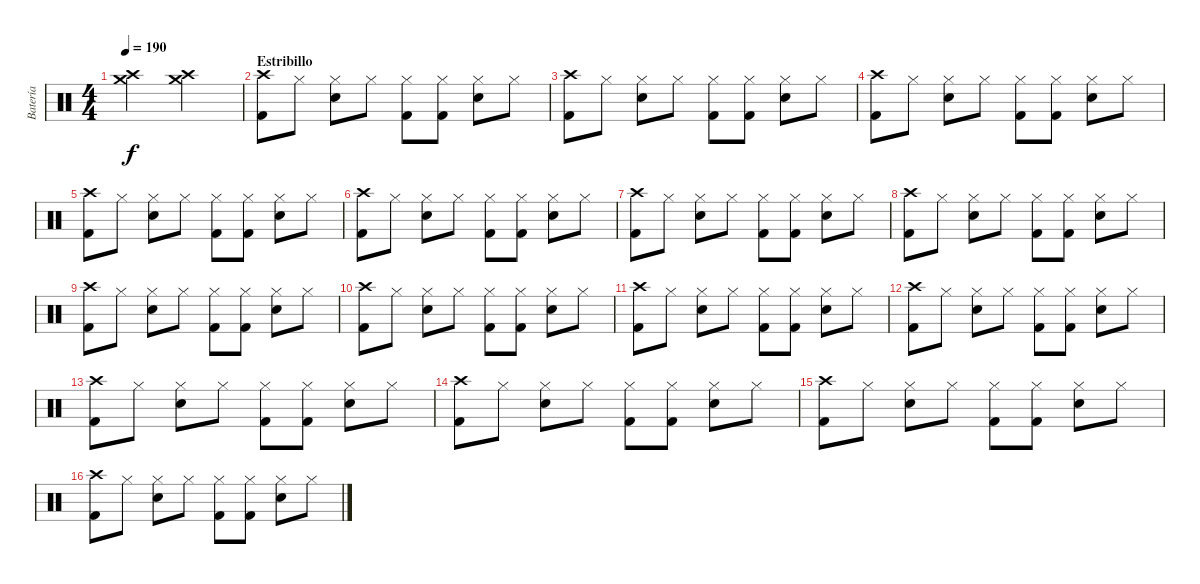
\track ("Batería" "Batería") {instrument percussion}
\staff {score}
\articulation defaults
\ts (4 4)
\tempo 190
\clef neutral
\ks c
("Crash medium (hit)" "Crash high (hit)").2{dy f} ("Crash medium (hit)" "Crash high (hit)").2 |
\section ("" "Estribillo")
("Crash high (hit)" "Kick (hit) 2").8 "Hi-Hat (closed)".8 ("Hi-Hat (closed)" "Snare (hit) 2").8 "Hi-Hat (closed)".8 ("Hi-Hat (closed)" "Kick (hit) 2").8 ("Hi-Hat (closed)" "Kick (hit) 2").8 ("Hi-Hat (closed)" "Snare (hit) 2").8 "Hi-Hat (closed)".8 |
("Crash high (hit)" "Kick (hit) 2").8 "Hi-Hat (closed)".8 ("Hi-Hat (closed)" "Snare (hit) 2").8 "Hi-Hat (closed)".8 ("Hi-Hat (closed)" "Kick (hit) 2").8 ("Hi-Hat (closed)" "Kick (hit) 2").8 ("Hi-Hat (closed)" "Snare (hit) 2").8 "Hi-Hat (closed)".8 |
("Crash high (hit)" "Kick (hit) 2").8 "Hi-Hat (closed)".8 ("Hi-Hat (closed)" "Snare (hit) 2").8 "Hi-Hat (closed)".8 ("Hi-Hat (closed)" "Kick (hit) 2").8 ("Hi-Hat (closed)" "Kick (hit) 2").8 ("Hi-Hat (closed)" "Snare (hit) 2").8 "Hi-Hat (closed)".8 |
("Crash high (hit)" "Kick (hit) 2").8 "Hi-Hat (closed)".8 ("Hi-Hat (closed)" "Snare (hit) 2").8 "Hi-Hat (closed)".8 ("Hi-Hat (closed)" "Kick (hit) 2").8 ("Hi-Hat (closed)" "Kick (hit) 2").8 ("Hi-Hat (closed)" "Snare (hit) 2").8 "Hi-Hat (closed)".8 |
("Crash high (hit)" "Kick (hit) 2").8 "Hi-Hat (closed)".8 ("Hi-Hat (closed)" "Snare (hit) 2").8 "Hi-Hat (closed)".8 ("Hi-Hat (closed)" "Kick (hit) 2").8 ("Hi-Hat (closed)" "Kick (hit) 2").8 ("Hi-Hat (closed)" "Snare (hit) 2").8 "Hi-Hat (closed)".8 |
("Crash high (hit)" "Kick (hit) 2").8 "Hi-Hat (closed)".8 ("Hi-Hat (closed)" "Snare (hit) 2").8 "Hi-Hat (closed)".8 ("Hi-Hat (closed)" "Kick (hit) 2").8 ("Hi-Hat (closed)" "Kick (hit) 2").8 ("Hi-Hat (closed)" "Snare (hit) 2").8 "Hi-Hat (closed)".8 |
("Crash high (hit)" "Kick (hit) 2").8 "Hi-Hat (closed)".8 ("Hi-Hat (closed)" "Snare (hit) 2").8 "Hi-Hat (closed)".8 ("Hi-Hat (closed)" "Kick (hit) 2").8 ("Hi-Hat (closed)" "Kick (hit) 2").8 ("Hi-Hat (closed)" "Snare (hit) 2").8 "Hi-Hat (closed)".8 |
("Crash high (hit)" "Kick (hit) 2").8 "Hi-Hat (closed)".8 ("Hi-Hat (closed)" "Snare (hit) 2").8 "Hi-Hat (closed)".8 ("Hi-Hat (closed)" "Kick (hit) 2").8 ("Hi-Hat (closed)" "Kick (hit) 2").8 ("Hi-Hat (closed)" "Snare (hit) 2").8 "Hi-Hat (closed)".8 |
("Crash high (hit)" "Kick (hit) 2").8 "Hi-Hat (closed)".8 ("Hi-Hat (closed)" "Snare (hit) 2").8 "Hi-Hat (closed)".8 ("Hi-Hat (closed)" "Kick (hit) 2").8 ("Hi-Hat (closed)" "Kick (hit) 2").8 ("Hi-Hat (closed)" "Snare (hit) 2").8 "Hi-Hat (closed)".8 |
("Crash high (hit)" "Kick (hit) 2").8 "Hi-Hat (closed)".8 ("Hi-Hat (closed)" "Snare (hit) 2").8 "Hi-Hat (closed)".8 ("Hi-Hat (closed)" "Kick (hit) 2").8 ("Hi-Hat (closed)" "Kick (hit) 2").8 ("Hi-Hat (closed)" "Snare (hit) 2").8 "Hi-Hat (closed)".8 |
("Crash high (hit)" "Kick (hit) 2").8 "Hi-Hat (closed)".8 ("Hi-Hat (closed)" "Snare (hit) 2").8 "Hi-Hat (closed)".8 ("Hi-Hat (closed)" "Kick (hit) 2").8 ("Hi-Hat (closed)" "Kick (hit) 2").8 ("Hi-Hat (closed)" "Snare (hit) 2").8 "Hi-Hat (closed)".8 |
("Crash high (hit)" "Kick (hit) 2").8 "Hi-Hat (closed)".8 ("Hi-Hat (closed)" "Snare (hit) 2").8 "Hi-Hat (closed)".8 ("Hi-Hat (closed)" "Kick (hit) 2").8 ("Hi-Hat (closed)" "Kick (hit) 2").8 ("Hi-Hat (closed)" "Snare (hit) 2").8 "Hi-Hat (closed)".8 |
("Crash high (hit)" "Kick (hit) 2").8 "Hi-Hat (closed)".8 ("Hi-Hat (closed)" "Snare (hit) 2").8 "Hi-Hat (closed)".8 ("Hi-Hat (closed)" "Kick (hit) 2").8 ("Hi-Hat (closed)" "Kick (hit) 2").8 ("Hi-Hat (closed)" "Snare (hit) 2").8 "Hi-Hat (closed)".8 |
("Crash high (hit)" "Kick (hit) 2").8 "Hi-Hat (closed)".8 ("Hi-Hat (closed)" "Snare (hit) 2").8 "Hi-Hat (closed)".8 ("Hi-Hat (closed)" "Kick (hit) 2").8 ("Hi-Hat (closed)" "Kick (hit) 2").8 ("Hi-Hat (closed)" "Snare (hit) 2").8 "Hi-Hat (closed)".8 |
("Crash high (hit)" "Kick (hit) 2").8 "Hi-Hat (closed)".8 ("Hi-Hat (closed)" "Snare (hit) 2").8 "Hi-Hat (closed)".8 ("Hi-Hat (closed)" "Kick (hit) 2").8 ("Hi-Hat (closed)" "Kick (hit) 2").8 ("Hi-Hat (closed)" "Snare (hit) 2").8 "Hi-Hat (closed)".8
